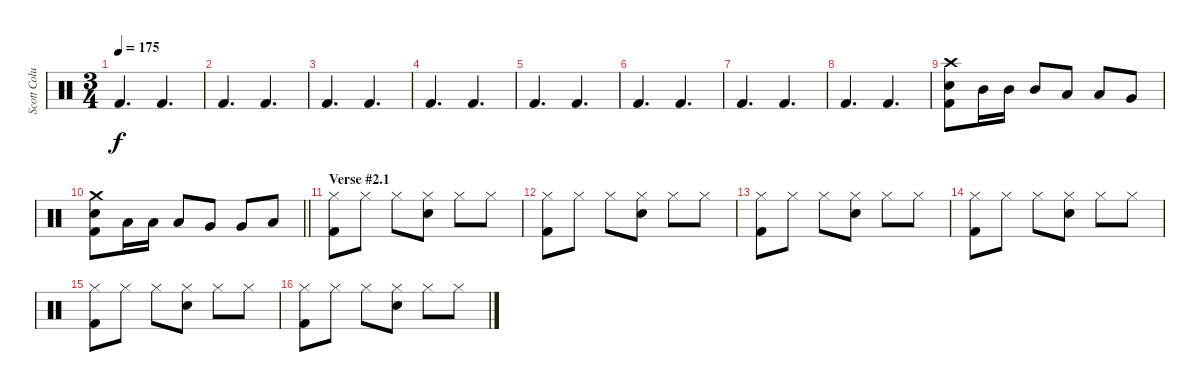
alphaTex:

\track ("Scott Columbus" "Scott Colu") {instrument percussion}
\staff {score}
\articulation defaults
\ts (3 4)
\tempo 175
\clef neutral
\ks c "Kick (hit) 2".4{d dy f} "Kick (hit) 2".4{d}
|
"Kick (hit) 2".4{d} "Kick (hit) 2".4{d} |
"Kick (hit) 2".4{d} "Kick (hit) 2".4{d} |
"Kick (hit) 2".4{d} "Kick (hit) 2".4{d} |
"Kick (hit) 2".4{d} "Kick (hit) 2".4{d} |
"Kick (hit) 2".4{d} "Kick (hit) 2".4{d} |
"Kick (hit) 2".4{d} "Kick (hit) 2".4{d} |
"Kick (hit) 2".4{d} "Kick (hit) 2".4{d} |
("Kick (hit) 2" "Snare (hit) 2" "Crash high (hit)").8 "Mid Tom (hit)".16 "Mid Tom (hit)".16 "Mid Tom (hit)".8 "Low Tom (hit)".8 "Low Tom (hit)".8 "Very Low Tom (hit)".8 |
\barLineRight lightlight
("Kick (hit) 2" "Snare (hit) 2" "Crash medium (hit)").8 "Low Tom (hit)".16 "Low Tom (hit)".16 "Low Tom (hit)".8 "Very Low Tom (hit)".8 "Very Low Tom (hit)".8 "Low Floor Tom (hit)".8 |
\section ("" "Verse #2.1")
("Kick (hit) 2" "Hi-Hat (closed)").8 "Hi-Hat (closed)".8 "Hi-Hat (closed)".8 ("Snare (hit) 2" "Hi-Hat (closed)").8 "Hi-Hat (closed)".8 "Hi-Hat (closed)".8 |
("Kick (hit) 2" "Hi-Hat (closed)").8 "Hi-Hat (closed)".8 "Hi-Hat (closed)".8 ("Snare (hit) 2" "Hi-Hat (closed)").8 "Hi-Hat (closed)".8 "Hi-Hat (closed)".8 |
("Kick (hit) 2" "Hi-Hat (closed)").8 "Hi-Hat (closed)".8 "Hi-Hat (closed)".8 ("Snare (hit) 2" "Hi-Hat (closed)").8 "Hi-Hat (closed)".8 "Hi-Hat (closed)".8 |
("Kick (hit) 2" "Hi-Hat (closed)").8 "Hi-Hat (closed)".8 "Hi-Hat (closed)".8 ("Snare (hit) 2" "Hi-Hat (closed)").8 "Hi-Hat (closed)".8 "Hi-Hat (closed)".8 |
("Kick (hit) 2" "Hi-Hat (closed)").8 "Hi-Hat (closed)".8 "Hi-Hat (closed)".8 ("Snare (hit) 2" "Hi-Hat (closed)").8 "Hi-Hat (closed)".8 "Hi-Hat (closed)".8 |
("Kick (hit) 2" "Hi-Hat (closed)").8 "Hi-Hat (closed)".8 "Hi-Hat (closed)".8 ("Snare (hit) 2" "Hi-Hat (closed)").8 "Hi-Hat (closed)".8 "Hi-Hat (closed)".8
